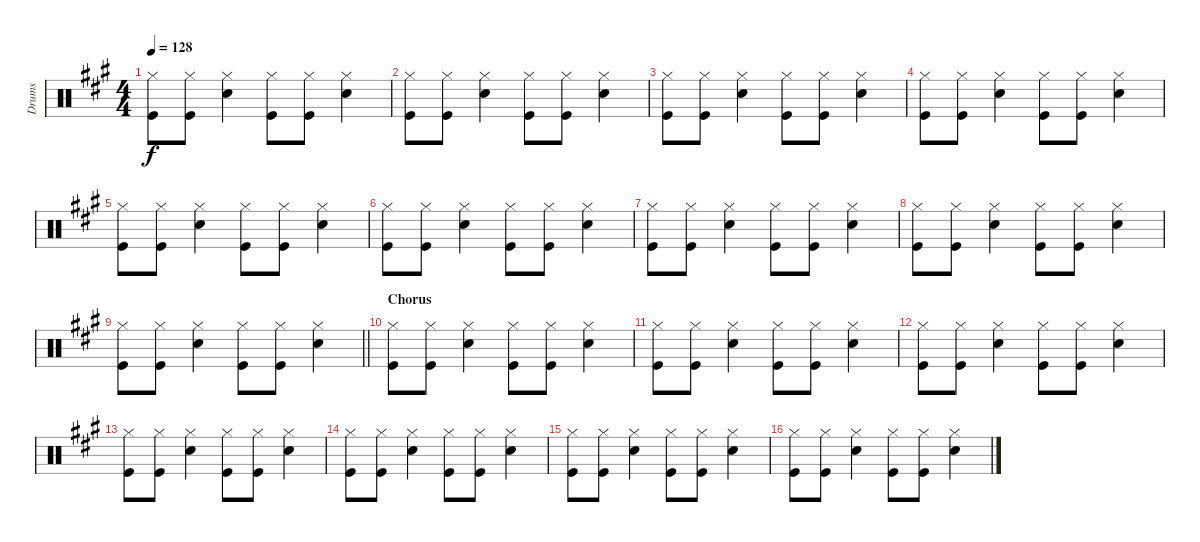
\track ("Drums" "Drums") {instrument percussion}
\staff
\articulation defaults
\ts (4 4)
\tempo 128
\clef neutral
\ks a
("Hi-Hat (closed)" "Kick (hit)").8{dy f} ("Hi-Hat (closed)" "Kick (hit)").8 ("Hi-Hat (closed)" "Snare (hit) 2").4 ("Hi-Hat (closed)" "Kick (hit)").8 ("Hi-Hat (closed)" "Kick (hit)").8 ("Hi-Hat (closed)" "Snare (hit) 2").4 |
("Hi-Hat (closed)" "Kick (hit)").8 ("Hi-Hat (closed)" "Kick (hit)").8 ("Hi-Hat (closed)" "Snare (hit) 2").4 ("Hi-Hat (closed)" "Kick (hit)").8 ("Hi-Hat (closed)" "Kick (hit)").8 ("Hi-Hat (closed)" "Snare (hit) 2").4 |
("Hi-Hat (closed)" "Kick (hit)").8 ("Hi-Hat (closed)" "Kick (hit)").8 ("Hi-Hat (closed)" "Snare (hit) 2").4 ("Hi-Hat (closed)" "Kick (hit)").8 ("Hi-Hat (closed)" "Kick (hit)").8 ("Hi-Hat (closed)" "Snare (hit) 2").4 |
("Hi-Hat (closed)" "Kick (hit)").8 ("Hi-Hat (closed)" "Kick (hit)").8 ("Hi-Hat (closed)" "Snare (hit) 2").4 ("Hi-Hat (closed)" "Kick (hit)").8 ("Hi-Hat (closed)" "Kick (hit)").8 ("Hi-Hat (closed)" "Snare (hit) 2").4 |
("Hi-Hat (closed)" "Kick (hit)").8 ("Hi-Hat (closed)" "Kick (hit)").8 ("Hi-Hat (closed)" "Snare (hit) 2").4 ("Hi-Hat (closed)" "Kick (hit)").8 ("Hi-Hat (closed)" "Kick (hit)").8 ("Hi-Hat (closed)" "Snare (hit) 2").4 |
("Hi-Hat (closed)" "Kick (hit)").8 ("Hi-Hat (closed)" "Kick (hit)").8 ("Hi-Hat (closed)" "Snare (hit) 2").4 ("Hi-Hat (closed)" "Kick (hit)").8 ("Hi-Hat (closed)" "Kick (hit)").8 ("Hi-Hat (closed)" "Snare (hit) 2").4 |
("Hi-Hat (closed)" "Kick (hit)").8 ("Hi-Hat (closed)" "Kick (hit)").8 ("Hi-Hat (closed)" "Snare (hit) 2").4 ("Hi-Hat (closed)" "Kick (hit)").8 ("Hi-Hat (closed)" "Kick (hit)").8 ("Hi-Hat (closed)" "Snare (hit) 2").4 |
("Hi-Hat (closed)" "Kick (hit)").8 ("Hi-Hat (closed)" "Kick (hit)").8 ("Hi-Hat (closed)" "Snare (hit) 2").4 ("Hi-Hat (closed)" "Kick (hit)").8 ("Hi-Hat (closed)" "Kick (hit)").8 ("Hi-Hat (closed)" "Snare (hit) 2").4 |
\barLineRight lightlight
("Hi-Hat (closed)" "Kick (hit)").8 ("Hi-Hat (closed)" "Kick (hit)").8 ("Hi-Hat (closed)" "Snare (hit) 2").4 ("Hi-Hat (closed)" "Kick (hit)").8 ("Hi-Hat (closed)" "Kick (hit)").8 ("Hi-Hat (closed)" "Snare (hit) 2").4 |
\section ("" "Chorus")
("Hi-Hat (closed)" "Kick (hit)").8 ("Hi-Hat (closed)" "Kick (hit)").8 ("Hi-Hat (closed)" "Snare (hit) 2").4 ("Hi-Hat (closed)" "Kick (hit)").8 ("Hi-Hat (closed)" "Kick (hit)").8 ("Hi-Hat (closed)" "Snare (hit) 2").4 |
("Hi-Hat (closed)" "Kick (hit)").8 ("Hi-Hat (closed)" "Kick (hit)").8 ("Hi-Hat (closed)" "Snare (hit) 2").4 ("Hi-Hat (closed)" "Kick (hit)").8 ("Hi-Hat (closed)" "Kick (hit)").8 ("Hi-Hat (closed)" "Snare (hit) 2").4 |
("Hi-Hat (closed)" "Kick (hit)").8 ("Hi-Hat (closed)" "Kick (hit)").8 ("Hi-Hat (closed)" "Snare (hit) 2").4 ("Hi-Hat (closed)" "Kick (hit)").8 ("Hi-Hat (closed)" "Kick (hit)").8 ("Hi-Hat (closed)" "Snare (hit) 2").4 |
("Hi-Hat (closed)" "Kick (hit)").8 ("Hi-Hat (closed)" "Kick (hit)").8 ("Hi-Hat (closed)" "Snare (hit) 2").4 ("Hi-Hat (closed)" "Kick (hit)").8 ("Hi-Hat (closed)" "Kick (hit)").8 ("Hi-Hat (closed)" "Snare (hit) 2").4 |
("Hi-Hat (closed)" "Kick (hit)").8 ("Hi-Hat (closed)" "Kick (hit)").8 ("Hi-Hat (closed)" "Snare (hit) 2").4 ("Hi-Hat (closed)" "Kick (hit)").8 ("Hi-Hat (closed)" "Kick (hit)").8 ("Hi-Hat (closed)" "Snare (hit) 2").4 |
("Hi-Hat (closed)" "Kick (hit)").8 ("Hi-Hat (closed)" "Kick (hit)").8 ("Hi-Hat (closed)" "Snare (hit) 2").4 ("Hi-Hat (closed)" "Kick (hit)").8 ("Hi-Hat (closed)" "Kick (hit)").8 ("Hi-Hat (closed)" "Snare (hit) 2").4 |
("Hi-Hat (closed)" "Kick (hit)").8 ("Hi-Hat (closed)" "Kick (hit)").8 ("Hi-Hat (closed)" "Snare (hit) 2").4 ("Hi-Hat (closed)" "Kick (hit)").8 ("Hi-Hat (closed)" "Kick (hit)").8 ("Hi-Hat (closed)" "Snare (hit) 2").4
